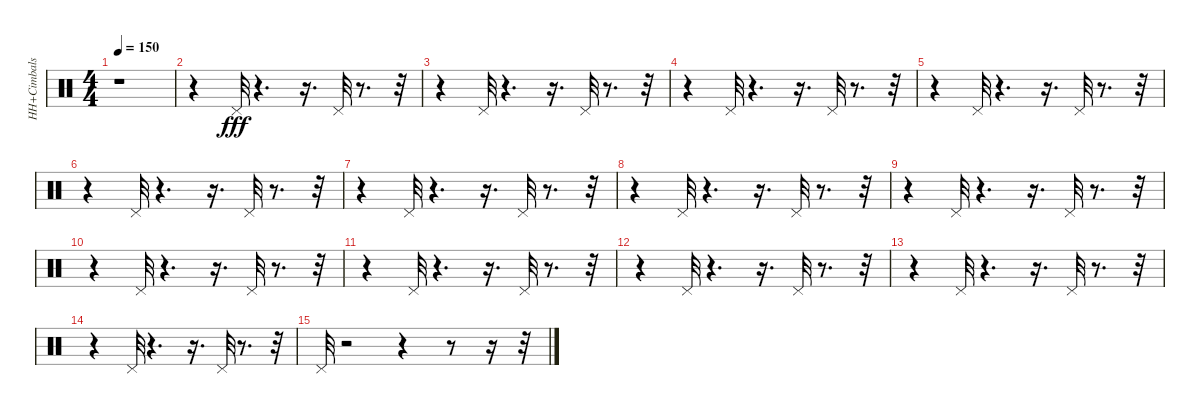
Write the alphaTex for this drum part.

\track ("HH+Cimbals" "HH+Cimbals") {instrument percussion}
\staff {score}
\articulation defaults
\ts (4 4)
\tempo 150
\clef neutral
\ks c
r.1{dy fff} |
r.4 "Pedal Hi-Hat (hit)".32 r.4{d} r.16{d} "Pedal Hi-Hat (hit)".32 r.8{d} r.32 |
r.4 "Pedal Hi-Hat (hit)".32 r.4{d} r.16{d} "Pedal Hi-Hat (hit)".32 r.8{d} r.32 |
r.4 "Pedal Hi-Hat (hit)".32 r.4{d} r.16{d} "Pedal Hi-Hat (hit)".32 r.8{d} r.32 |
r.4 "Pedal Hi-Hat (hit)".32 r.4{d} r.16{d} "Pedal Hi-Hat (hit)".32 r.8{d} r.32 |
r.4 "Pedal Hi-Hat (hit)".32 r.4{d} r.16{d} "Pedal Hi-Hat (hit)".32 r.8{d} r.32 |
r.4 "Pedal Hi-Hat (hit)".32 r.4{d} r.16{d} "Pedal Hi-Hat (hit)".32 r.8{d} r.32 |
r.4 "Pedal Hi-Hat (hit)".32 r.4{d} r.16{d} "Pedal Hi-Hat (hit)".32 r.8{d} r.32 |
r.4 "Pedal Hi-Hat (hit)".32 r.4{d} r.16{d} "Pedal Hi-Hat (hit)".32 r.8{d} r.32 |
r.4 "Pedal Hi-Hat (hit)".32 r.4{d} r.16{d} "Pedal Hi-Hat (hit)".32 r.8{d} r.32 |
r.4 "Pedal Hi-Hat (hit)".32 r.4{d} r.16{d} "Pedal Hi-Hat (hit)".32 r.8{d} r.32 |
r.4 "Pedal Hi-Hat (hit)".32 r.4{d} r.16{d} "Pedal Hi-Hat (hit)".32 r.8{d} r.32 |
r.4 "Pedal Hi-Hat (hit)".32 r.4{d} r.16{d} "Pedal Hi-Hat (hit)".32 r.8{d} r.32 |
r.4 "Pedal Hi-Hat (hit)".32 r.4{d} r.16{d} "Pedal Hi-Hat (hit)".32 r.8{d} r.32 |
"Pedal Hi-Hat (hit)".32 r.2 r.4 r.8 r.16 r.32
